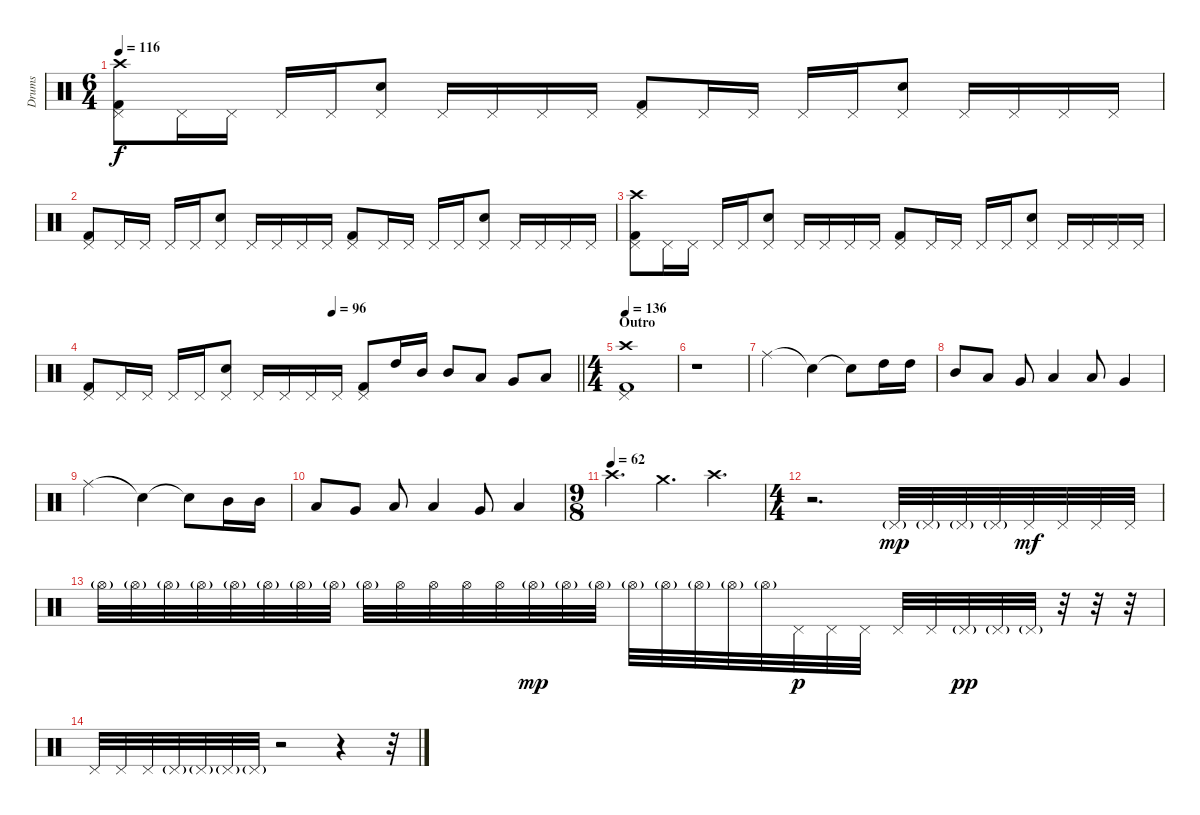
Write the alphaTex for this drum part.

\track ("Drums" "Drums") {instrument percussion}
\staff {score}
\articulation defaults
\ts (6 4)
\tempo 116
\clef neutral
\ks c
("Kick (hit) 2" "Pedal Hi-Hat (hit)" "Crash high (hit)").8{dy f} "Pedal Hi-Hat (hit)".16 "Pedal Hi-Hat (hit)".16 "Pedal Hi-Hat (hit)".16 "Pedal Hi-Hat (hit)".16 ("Snare (hit) 2" "Pedal Hi-Hat (hit)").8 "Pedal Hi-Hat (hit)".16 "Pedal Hi-Hat (hit)".16 "Pedal Hi-Hat (hit)".16 "Pedal Hi-Hat (hit)".16 ("Kick (hit) 2" "Pedal Hi-Hat (hit)").8 "Pedal Hi-Hat (hit)".16 "Pedal Hi-Hat (hit)".16 "Pedal Hi-Hat (hit)".16 "Pedal Hi-Hat (hit)".16 ("Snare (hit) 2" "Pedal Hi-Hat (hit)").8 "Pedal Hi-Hat (hit)".16 "Pedal Hi-Hat (hit)".16 "Pedal Hi-Hat (hit)".16 "Pedal Hi-Hat (hit)".16 |
("Kick (hit) 2" "Pedal Hi-Hat (hit)").8 "Pedal Hi-Hat (hit)".16 "Pedal Hi-Hat (hit)".16 "Pedal Hi-Hat (hit)".16 "Pedal Hi-Hat (hit)".16 ("Snare (hit) 2" "Pedal Hi-Hat (hit)").8 "Pedal Hi-Hat (hit)".16 "Pedal Hi-Hat (hit)".16 "Pedal Hi-Hat (hit)".16 "Pedal Hi-Hat (hit)".16 ("Kick (hit) 2" "Pedal Hi-Hat (hit)").8 "Pedal Hi-Hat (hit)".16 "Pedal Hi-Hat (hit)".16 "Pedal Hi-Hat (hit)".16 "Pedal Hi-Hat (hit)".16 ("Snare (hit) 2" "Pedal Hi-Hat (hit)").8 "Pedal Hi-Hat (hit)".16 "Pedal Hi-Hat (hit)".16 "Pedal Hi-Hat (hit)".16 "Pedal Hi-Hat (hit)".16 |
("Kick (hit) 2" "Pedal Hi-Hat (hit)" "Crash high (hit)").8 "Pedal Hi-Hat (hit)".16 "Pedal Hi-Hat (hit)".16 "Pedal Hi-Hat (hit)".16 "Pedal Hi-Hat (hit)".16 ("Snare (hit) 2" "Pedal Hi-Hat (hit)").8 "Pedal Hi-Hat (hit)".16 "Pedal Hi-Hat (hit)".16 "Pedal Hi-Hat (hit)".16 "Pedal Hi-Hat (hit)".16 ("Kick (hit) 2" "Pedal Hi-Hat (hit)").8 "Pedal Hi-Hat (hit)".16 "Pedal Hi-Hat (hit)".16 "Pedal Hi-Hat (hit)".16 "Pedal Hi-Hat (hit)".16 ("Snare (hit) 2" "Pedal Hi-Hat (hit)").8 "Pedal Hi-Hat (hit)".16 "Pedal Hi-Hat (hit)".16 "Pedal Hi-Hat (hit)".16 "Pedal Hi-Hat (hit)".16 |
\tempo (96 0.5)
\barLineRight lightlight
("Kick (hit) 2" "Pedal Hi-Hat (hit)").8 "Pedal Hi-Hat (hit)".16 "Pedal Hi-Hat (hit)".16 "Pedal Hi-Hat (hit)".16 "Pedal Hi-Hat (hit)".16 ("Snare (hit) 2" "Pedal Hi-Hat (hit)").8 "Pedal Hi-Hat (hit)".16 "Pedal Hi-Hat (hit)".16 "Pedal Hi-Hat (hit)".16 "Pedal Hi-Hat (hit)".16 ("Kick (hit) 2" "Pedal Hi-Hat (hit)").8 "High Tom (hit)".16 "Mid Tom (hit)".16 "Mid Tom (hit)".8 "Low Tom (hit)".8 "Very Low Tom (hit)".8 "Low Floor Tom (hit)".8 |
\ts (4 4)
\section ("" "Outro")
\tempo 136
("Kick (hit) 2" "Pedal Hi-Hat (hit)" "Crash high (hit)").1 |
r.1 |
"Ride (middle)".2 "Snare (hit)"{t}.4 "Snare (hit)"{t}.8 "High Tom (hit)".16 "High Tom (hit)".16 |
"Mid Tom (hit)".8 "Low Tom (hit)".8 "Very Low Tom (hit)".8 "Low Floor Tom (hit)".4 "Low Tom (hit)".8 "Very Low Tom (hit)".4 |
"Ride (middle)".2 "Snare (hit)"{t}.4 "Snare (hit)"{t}.8 "Mid Tom (hit)".16 "Mid Tom (hit)".16 |
"Low Tom (hit)".8 "Very Low Tom (hit)".8 "Low Floor Tom (hit)".8 "Low Floor Tom (hit)".4 "Very Low Tom (hit)".8 "Low Floor Tom (hit)".4 |
\ts (9 8)
\tempo (62)
"Crash high (hit)".4{d} "Crash medium (hit)".4{d} "Crash high (hit)".4{d} |
\ts (4 4)
r.2{d} "Pedal Hi-Hat (hit)"{g}.32{dy mp} "Pedal Hi-Hat (hit)"{g}.32 "Pedal Hi-Hat (hit)"{g}.32 "Pedal Hi-Hat (hit)"{g}.32 "Pedal Hi-Hat (hit)".32{dy mf} "Pedal Hi-Hat (hit)".32 "Pedal Hi-Hat (hit)".32 "Pedal Hi-Hat (hit)".32 |
"Hi-Hat (open)"{g}.32 "Hi-Hat (open)"{g}.32 "Hi-Hat (open)"{g}.32 "Hi-Hat (open)"{g}.32 "Hi-Hat (open)"{g}.32 "Hi-Hat (open)"{g}.32 "Hi-Hat (open)"{g}.32 "Hi-Hat (open)"{g}.32 "Hi-Hat (open)"{g}.32 "Hi-Hat (open)".32 "Hi-Hat (open)".32 "Hi-Hat (open)".32 "Hi-Hat (open)".32 "Hi-Hat (open)"{g}.32{dy mp} "Hi-Hat (open)"{g}.32 "Hi-Hat (open)"{g}.32 "Hi-Hat (open)"{g}.32 "Hi-Hat (open)"{g}.32 "Hi-Hat (open)"{g}.32 "Hi-Hat (open)"{g}.32 "Hi-Hat (open)"{g}.32 "Pedal Hi-Hat (hit)".32{dy p} "Pedal Hi-Hat (hit)".32 "Pedal Hi-Hat (hit)".32 "Pedal Hi-Hat (hit)".32 "Pedal Hi-Hat (hit)".32 "Pedal Hi-Hat (hit)"{g}.32{dy pp} "Pedal Hi-Hat (hit)"{g}.32 "Pedal Hi-Hat (hit)"{g}.32 r.32 r.32 r.32 |
"Pedal Hi-Hat (hit)".32 "Pedal Hi-Hat (hit)".32 "Pedal Hi-Hat (hit)".32 "Pedal Hi-Hat (hit)"{g}.32 "Pedal Hi-Hat (hit)"{g}.32 "Pedal Hi-Hat (hit)"{g}.32 "Pedal Hi-Hat (hit)"{g}.32 r.2 r.4 r.32
